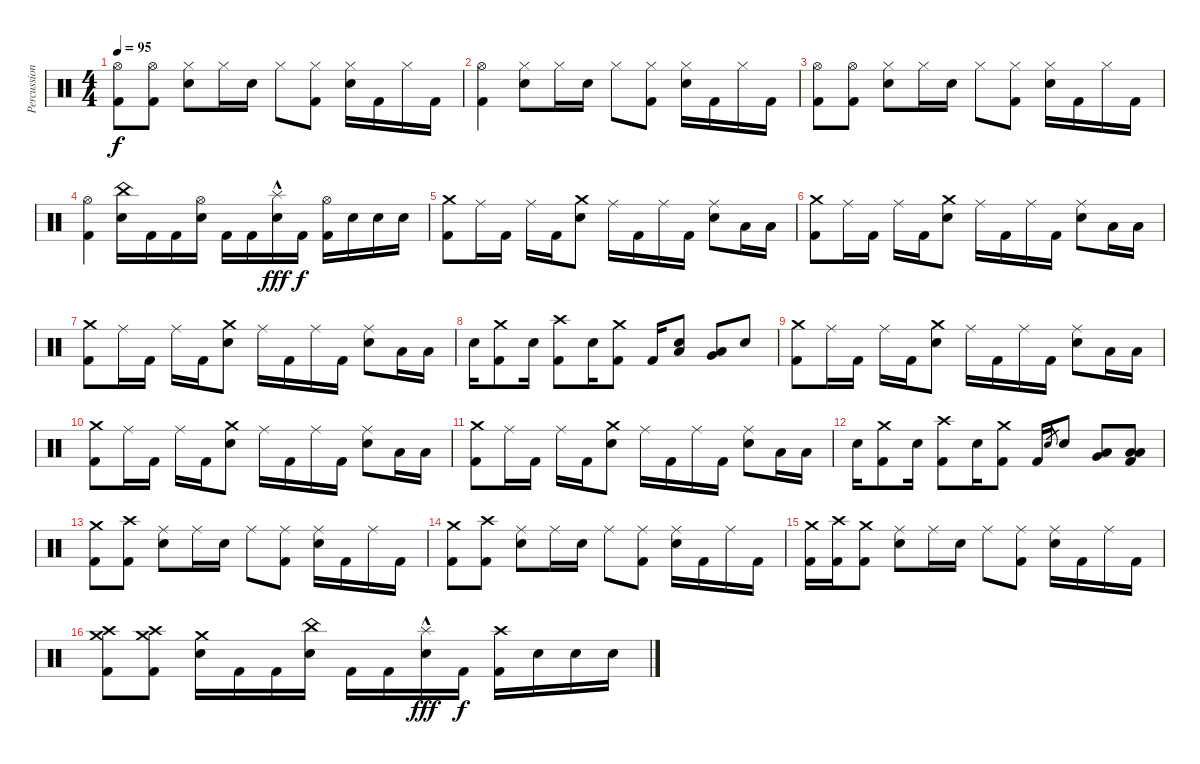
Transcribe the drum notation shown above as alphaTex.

\track ("Percussions" "Percussion") {instrument percussion}
\staff {score}
\articulation defaults
\ts (4 4)
\tempo 95
\clef neutral
\ks c
("Hi-Hat (open)" "Kick (hit) 2").8{dy f} ("Hi-Hat (open)" "Kick (hit) 2").8 ("Hi-Hat (closed)" "Electric Snare (hit)").8 "Hi-Hat (closed)".16 "Electric Snare (hit)".16 "Hi-Hat (closed)".8 ("Hi-Hat (closed)" "Kick (hit) 2").8 ("Hi-Hat (closed)" "Electric Snare (hit)").16 "Kick (hit) 2".16 "Hi-Hat (closed)".16 "Kick (hit) 2".16 |
("Hi-Hat (open)" "Kick (hit) 2").4 ("Hi-Hat (closed)" "Electric Snare (hit)").8 "Hi-Hat (closed)".16 "Electric Snare (hit)".16 "Hi-Hat (closed)".8 ("Hi-Hat (closed)" "Kick (hit) 2").8 ("Hi-Hat (closed)" "Electric Snare (hit)").16 "Kick (hit) 2".16 "Hi-Hat (closed)".16 "Kick (hit) 2".16 |
("Hi-Hat (open)" "Kick (hit) 2").8 ("Hi-Hat (open)" "Kick (hit) 2").8 ("Hi-Hat (closed)" "Electric Snare (hit)").8 "Hi-Hat (closed)".16 "Electric Snare (hit)".16 "Hi-Hat (closed)".8 ("Hi-Hat (closed)" "Kick (hit) 2").8 ("Hi-Hat (closed)" "Electric Snare (hit)").16 "Kick (hit) 2".16 "Hi-Hat (closed)".16 "Kick (hit) 2".16 |
("Hi-Hat (open)" "Kick (hit) 2").4 ("China (hit)" "Electric Snare (hit)").16 "Kick (hit) 2".16 "Kick (hit) 2".16 ("Hi-Hat (open)" "Electric Snare (hit)").16 "Kick (hit) 2".16 "Kick (hit) 2".16 ("Splash (hit)"{hac} "Electric Snare (hit)").16{dy fff} "Kick (hit) 2".16{dy f} ("Hi-Hat (open)" "Kick (hit) 2").16 "Electric Snare (hit)".16 "Electric Snare (hit)".16 "Electric Snare (hit)".16 |
("Crash medium (hit)" "Kick (hit) 2").8 "Ride (middle)".16 "Kick (hit) 2".16 "Ride (middle)".16 "Kick (hit) 2".16 ("Crash medium (hit)" "Electric Snare (hit)").8 "Ride (middle)".16 "Kick (hit) 2".16 "Ride (middle)".16 "Kick (hit) 2".16 ("Ride (middle)" "Electric Snare (hit)").8 "Low Tom (hit)".16 "Low Tom (hit)".16 |
("Crash medium (hit)" "Kick (hit) 2").8 "Ride (middle)".16 "Kick (hit) 2".16 "Ride (middle)".16 "Kick (hit) 2".16 ("Crash medium (hit)" "Electric Snare (hit)").8 "Ride (middle)".16 "Kick (hit) 2".16 "Ride (middle)".16 "Kick (hit) 2".16 ("Ride (middle)" "Electric Snare (hit)").8 "Low Tom (hit)".16 "Low Tom (hit)".16 |
("Crash medium (hit)" "Kick (hit) 2").8 "Ride (middle)".16 "Kick (hit) 2".16 "Ride (middle)".16 "Kick (hit) 2".16 ("Crash medium (hit)" "Electric Snare (hit)").8 "Ride (middle)".16 "Kick (hit) 2".16 "Ride (middle)".16 "Kick (hit) 2".16 ("Ride (middle)" "Electric Snare (hit)").8 "Low Tom (hit)".16 "Low Tom (hit)".16 |
"Electric Snare (hit)".16 ("Crash medium (hit)" "Kick (hit) 2").8 "Electric Snare (hit)".16 ("Crash high (hit)" "Kick (hit) 2").8 "Electric Snare (hit)".16 ("Crash medium (hit)" "Kick (hit) 2").8 "Kick (hit) 2".16 ("Electric Snare (hit)" "Low Floor Tom (hit)").8 ("Very Low Tom (hit)" "Low Floor Tom (hit)").8 "Electric Snare (hit)".8 |
("Crash medium (hit)" "Kick (hit) 2").8 "Ride (middle)".16 "Kick (hit) 2".16 "Ride (middle)".16 "Kick (hit) 2".16 ("Crash medium (hit)" "Electric Snare (hit)").8 "Ride (middle)".16 "Kick (hit) 2".16 "Ride (middle)".16 "Kick (hit) 2".16 ("Ride (middle)" "Electric Snare (hit)").8 "Low Tom (hit)".16 "Low Tom (hit)".16 |
("Crash medium (hit)" "Kick (hit) 2").8 "Ride (middle)".16 "Kick (hit) 2".16 "Ride (middle)".16 "Kick (hit) 2".16 ("Crash medium (hit)" "Electric Snare (hit)").8 "Ride (middle)".16 "Kick (hit) 2".16 "Ride (middle)".16 "Kick (hit) 2".16 ("Ride (middle)" "Electric Snare (hit)").8 "Low Tom (hit)".16 "Low Tom (hit)".16 |
("Crash medium (hit)" "Kick (hit) 2").8 "Ride (middle)".16 "Kick (hit) 2".16 "Ride (middle)".16 "Kick (hit) 2".16 ("Crash medium (hit)" "Electric Snare (hit)").8 "Ride (middle)".16 "Kick (hit) 2".16 "Ride (middle)".16 "Kick (hit) 2".16 ("Ride (middle)" "Electric Snare (hit)").8 "Low Tom (hit)".16 "Low Tom (hit)".16 |
"Electric Snare (hit)".16 ("Crash medium (hit)" "Kick (hit) 2").8 "Electric Snare (hit)".16 ("Crash high (hit)" "Kick (hit) 2").8 "Electric Snare (hit)".16 ("Crash medium (hit)" "Kick (hit) 2").8 "Kick (hit) 2".16 "Electric Snare (hit)".8{gr} "Electric Snare (hit)".8 ("Very Low Tom (hit)" "Low Floor Tom (hit)").8 ("Low Floor Tom (hit)" "Low Floor Tom (hit)" "Kick (hit) 2").8 |
("Crash medium (hit)" "Kick (hit) 2").8 ("Crash high (hit)" "Kick (hit) 2").8 ("Ride (middle)" "Electric Snare (hit)").8 "Ride (middle)".16 "Electric Snare (hit)".16 "Ride (middle)".8 ("Ride (middle)" "Kick (hit) 2").8 ("Ride (middle)" "Electric Snare (hit)").16 "Kick (hit) 2".16 "Ride (middle)".16 "Kick (hit) 2".16 |
("Crash medium (hit)" "Kick (hit) 2").8 ("Crash high (hit)" "Kick (hit) 2").8 ("Ride (middle)" "Electric Snare (hit)").8 "Ride (middle)".16 "Electric Snare (hit)".16 "Ride (middle)".8 ("Ride (middle)" "Kick (hit) 2").8 ("Ride (middle)" "Electric Snare (hit)").16 "Kick (hit) 2".16 "Ride (middle)".16 "Kick (hit) 2".16 |
("Crash medium (hit)" "Kick (hit) 2").16 ("Crash high (hit)" "Kick (hit) 2").16 ("Crash medium (hit)" "Kick (hit) 2").8 ("Ride (middle)" "Electric Snare (hit)").8 "Ride (middle)".16 "Electric Snare (hit)".16 "Ride (middle)".8 ("Ride (middle)" "Kick (hit) 2").8 ("Ride (middle)" "Electric Snare (hit)").16 "Kick (hit) 2".16 "Ride (middle)".16 "Kick (hit) 2".16 |
("Crash medium (hit)" "Crash high (hit)" "Kick (hit) 2").8 ("Crash high (hit)" "Crash medium (hit)" "Kick (hit) 2").8 ("Crash medium (hit)" "Electric Snare (hit)").16 "Kick (hit) 2".16 "Kick (hit) 2".16 ("China (hit)" "Electric Snare (hit)").16 "Kick (hit) 2".16 "Kick (hit) 2".16 ("Splash (hit)"{hac} "Electric Snare (hit)").16{dy fff} "Kick (hit) 2".16{dy f} ("Crash high (hit)" "Kick (hit) 2").16 "Electric Snare (hit)".16 "Electric Snare (hit)".16 "Electric Snare (hit)".16
